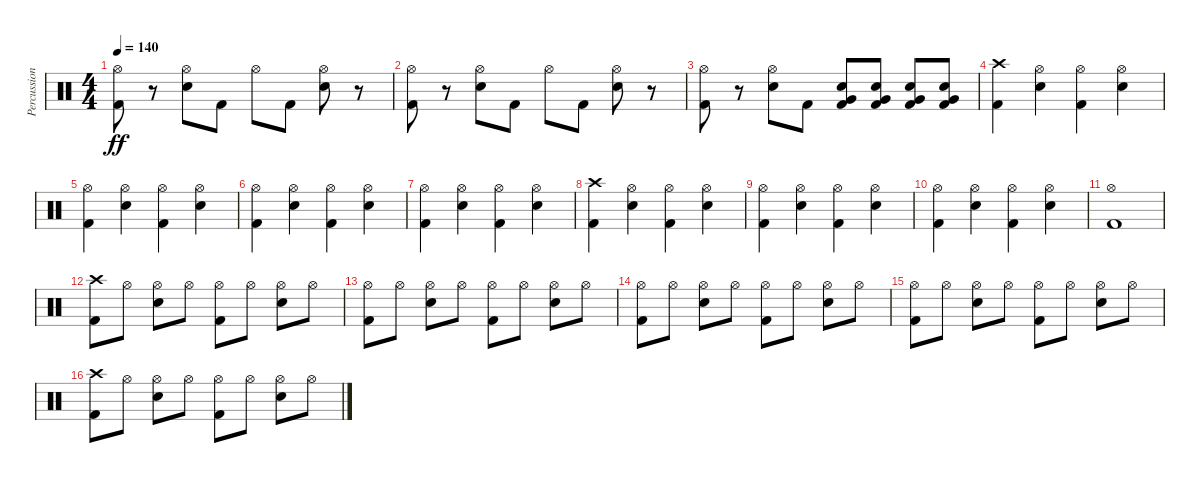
\track ("Percussion" "Percussion") {instrument percussion}
\staff {score}
\articulation defaults
\ts (4 4)
\tempo 140
\clef neutral
\ks c
("Hi-Hat (open)" "Kick (hit) 2").8{dy ff} r.8 ("Hi-Hat (open)" "Electric Snare (hit)").8 "Kick (hit) 2".8 "Hi-Hat (open)".8 "Kick (hit) 2".8 ("Hi-Hat (open)" "Electric Snare (hit)").8 r.8 |
("Hi-Hat (open)" "Kick (hit) 2").8 r.8 ("Hi-Hat (open)" "Electric Snare (hit)").8 "Kick (hit) 2".8 "Hi-Hat (open)".8 "Kick (hit) 2".8 ("Hi-Hat (open)" "Electric Snare (hit)").8 r.8 |
("Hi-Hat (open)" "Kick (hit) 2").8 r.8 ("Hi-Hat (open)" "Electric Snare (hit)").8 "Kick (hit) 2".8 ("Very Low Tom (hit)" "Electric Snare (hit)" "Kick (hit) 2").8 ("Very Low Tom (hit)" "Electric Snare (hit)" "Kick (hit) 2").8 ("Very Low Tom (hit)" "Electric Snare (hit)" "Kick (hit) 2").8 ("Very Low Tom (hit)" "Electric Snare (hit)" "Kick (hit) 2").8 |
("Crash high (hit)" "Kick (hit) 2").4 ("Hi-Hat (open)" "Snare (hit) 2").4 ("Hi-Hat (open)" "Kick (hit) 2").4 ("Hi-Hat (open)" "Snare (hit) 2").4 |
("Hi-Hat (open)" "Kick (hit) 2").4 ("Hi-Hat (open)" "Snare (hit) 2").4 ("Hi-Hat (open)" "Kick (hit) 2").4 ("Hi-Hat (open)" "Snare (hit) 2").4 |
("Hi-Hat (open)" "Kick (hit) 2").4 ("Hi-Hat (open)" "Snare (hit) 2").4 ("Hi-Hat (open)" "Kick (hit) 2").4 ("Hi-Hat (open)" "Snare (hit) 2").4 |
("Hi-Hat (open)" "Kick (hit) 2").4 ("Hi-Hat (open)" "Snare (hit) 2").4 ("Hi-Hat (open)" "Kick (hit) 2").4 ("Hi-Hat (open)" "Snare (hit) 2").4 |
("Crash high (hit)" "Kick (hit) 2").4 ("Hi-Hat (open)" "Snare (hit) 2").4 ("Hi-Hat (open)" "Kick (hit) 2").4 ("Hi-Hat (open)" "Snare (hit) 2").4 |
("Hi-Hat (open)" "Kick (hit) 2").4 ("Hi-Hat (open)" "Snare (hit) 2").4 ("Hi-Hat (open)" "Kick (hit) 2").4 ("Hi-Hat (open)" "Snare (hit) 2").4 |
("Hi-Hat (open)" "Kick (hit) 2").4 ("Hi-Hat (open)" "Snare (hit) 2").4 ("Hi-Hat (open)" "Kick (hit) 2").4 ("Hi-Hat (open)" "Snare (hit) 2").4 |
("Hi-Hat (open)" "Kick (hit) 2").1 |
("Crash high (hit)" "Kick (hit) 2").8 "Hi-Hat (open)".8 ("Hi-Hat (open)" "Snare (hit) 2").8 "Hi-Hat (open)".8 ("Hi-Hat (open)" "Kick (hit) 2").8 "Hi-Hat (open)".8 ("Hi-Hat (open)" "Snare (hit) 2").8 "Hi-Hat (open)".8 |
("Hi-Hat (open)" "Kick (hit) 2").8 "Hi-Hat (open)".8 ("Hi-Hat (open)" "Snare (hit) 2").8 "Hi-Hat (open)".8 ("Hi-Hat (open)" "Kick (hit) 2").8 "Hi-Hat (open)".8 ("Hi-Hat (open)" "Snare (hit) 2").8 "Hi-Hat (open)".8 |
("Hi-Hat (open)" "Kick (hit) 2").8 "Hi-Hat (open)".8 ("Hi-Hat (open)" "Snare (hit) 2").8 "Hi-Hat (open)".8 ("Hi-Hat (open)" "Kick (hit) 2").8 "Hi-Hat (open)".8 ("Hi-Hat (open)" "Snare (hit) 2").8 "Hi-Hat (open)".8 |
("Hi-Hat (open)" "Kick (hit) 2").8 "Hi-Hat (open)".8 ("Hi-Hat (open)" "Snare (hit) 2").8 "Hi-Hat (open)".8 ("Hi-Hat (open)" "Kick (hit) 2").8 "Hi-Hat (open)".8 ("Hi-Hat (open)" "Snare (hit) 2").8 "Hi-Hat (open)".8 |
("Crash high (hit)" "Kick (hit) 2").8 "Hi-Hat (open)".8 ("Hi-Hat (open)" "Snare (hit) 2").8 "Hi-Hat (open)".8 ("Hi-Hat (open)" "Kick (hit) 2").8 "Hi-Hat (open)".8 ("Hi-Hat (open)" "Snare (hit) 2").8 "Hi-Hat (open)".8
